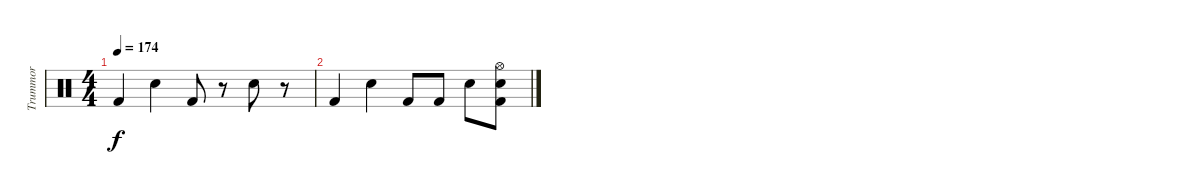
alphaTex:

\track ("Trummor" "Trummor") {instrument percussion}
\staff {score}
\articulation defaults
\ts (4 4)
\tempo 174
\clef neutral
\ks c "Kick (hit) 2".4{dy f} "Snare (hit) 2".4 "Kick (hit) 2".8
r.8 "Snare (hit) 2".8 r.8 |
"Kick (hit) 2".4 "Snare (hit) 2".4 "Kick (hit) 2".8 "Kick (hit) 2".8 "Snare (hit) 2".8 ("Kick (hit) 2" "Hi-Hat (open)" "Snare (hit) 2").8
